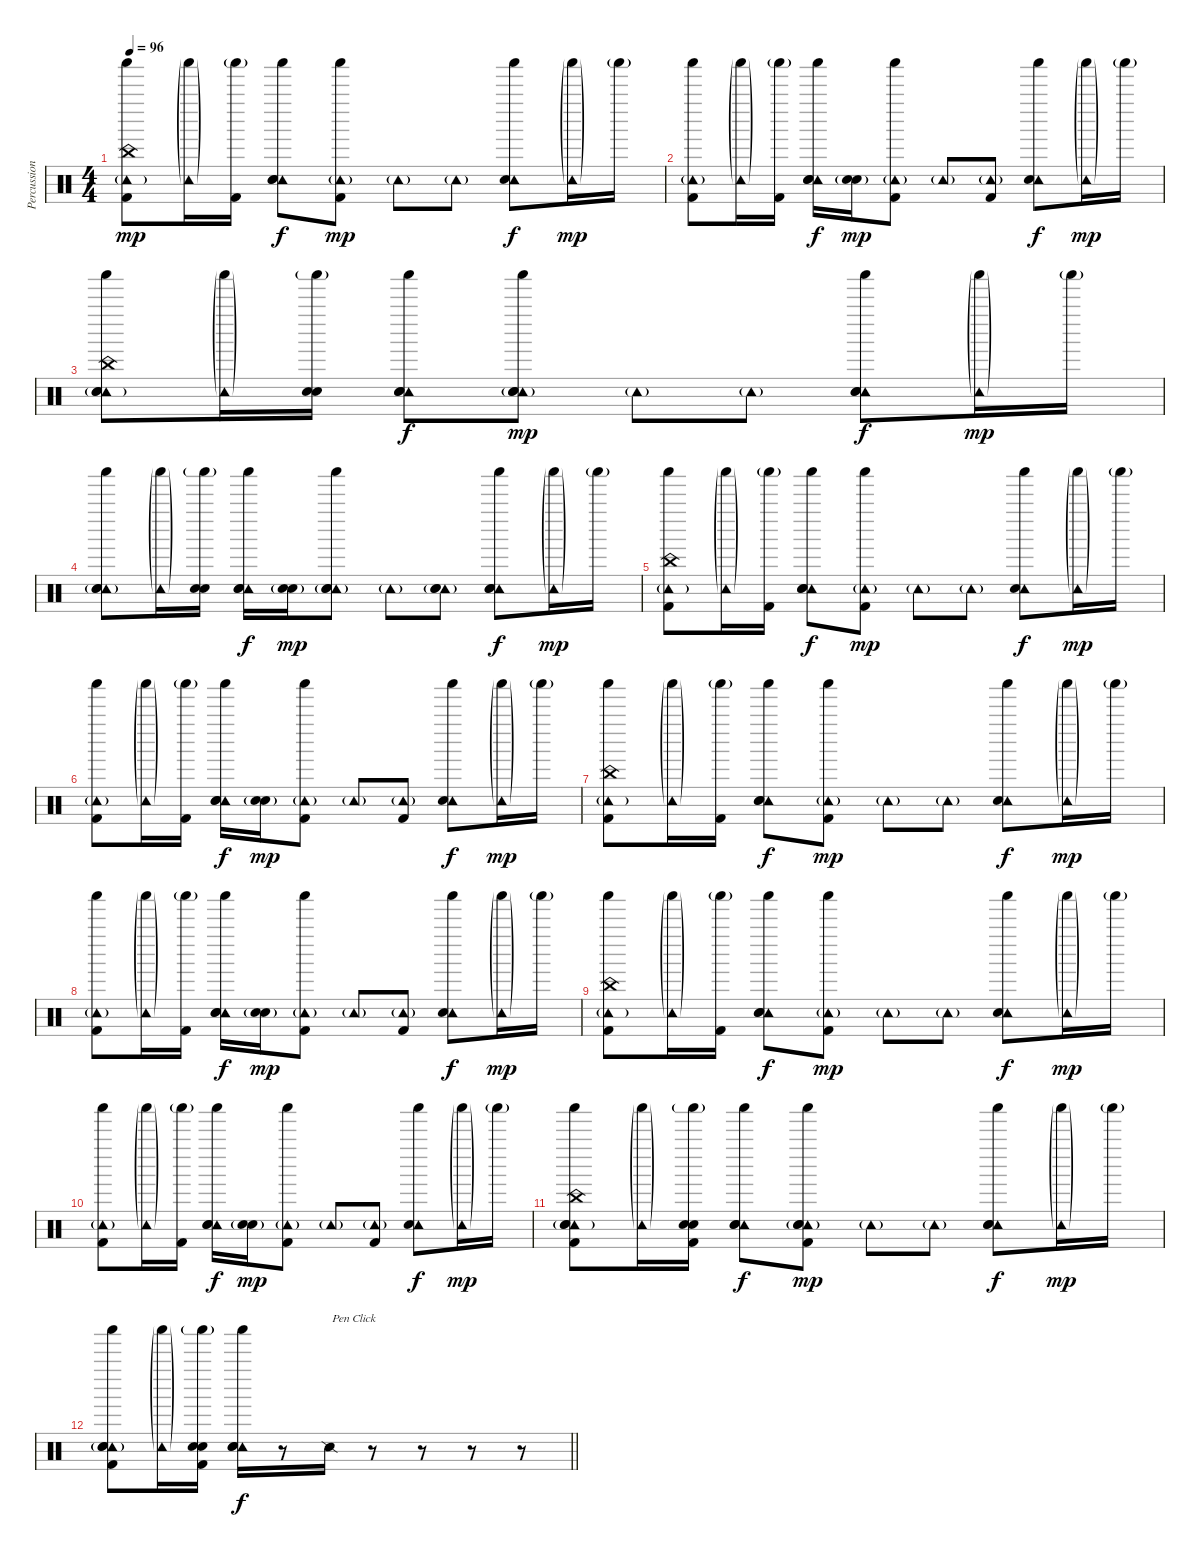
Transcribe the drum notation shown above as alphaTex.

\track ("Percussion" "Percussion") {instrument percussion}
\staff {score}
\articulation defaults
\ts (4 4)
\tempo 96
\clef neutral
\ks c
("China (hit)" "Shaker (hit)" "Tambourine (hit)"{g} "Kick (hit) 2").8{dy mp} ("Shaker (hit)"{g} "Tambourine (hit)"{g}).16 ("Shaker (hit)"{g} "Kick (hit) 2").16 ("Shaker (hit)" "Tambourine (hit)" "Hand Clap (hit)" "Electric Snare (hit)").8{dy f} ("Shaker (hit)" "Tambourine (hit)"{g} "Kick (hit) 2").8{dy mp} "Tambourine (hit)"{g}.8 "Tambourine (hit)"{g}.8 ("Shaker (hit)" "Tambourine (hit)" "Electric Snare (hit)").8{dy f} ("Shaker (hit)"{g} "Tambourine (hit)"{g}).16{dy mp} "Shaker (hit)"{g}.16 |
("Shaker (hit)" "Tambourine (hit)"{g} "Kick (hit) 2").8 ("Shaker (hit)"{g} "Tambourine (hit)"{g}).16 ("Shaker (hit)"{g} "Kick (hit) 2").16 ("Shaker (hit)" "Tambourine (hit)" "Hand Clap (hit)" "Electric Snare (hit)").16{dy f} ("Hand Clap (hit)"{g} "Electric Snare (hit)"{g}).16{dy mp} ("Shaker (hit)" "Tambourine (hit)"{g} "Kick (hit) 2").8 "Tambourine (hit)"{g}.8 ("Tambourine (hit)"{g} "Kick (hit) 2").8 ("Shaker (hit)" "Tambourine (hit)" "Electric Snare (hit)").8{dy f} ("Shaker (hit)"{g} "Tambourine (hit)"{g}).16{dy mp} "Shaker (hit)"{g}.16 |
("China (hit)" "Shaker (hit)" "Tambourine (hit)"{g} "Snare (hit) 2" "Electric Snare (hit)").8 ("Shaker (hit)"{g} "Tambourine (hit)"{g}).16 ("Shaker (hit)"{g} "Snare (hit) 2" "Electric Snare (hit)").16 ("Shaker (hit)" "Tambourine (hit)" "Hand Clap (hit)" "Electric Snare (hit)").8{dy f} ("Shaker (hit)" "Tambourine (hit)"{g} "Snare (hit) 2" "Electric Snare (hit)").8{dy mp} "Tambourine (hit)"{g}.8 "Tambourine (hit)"{g}.8 ("Shaker (hit)" "Tambourine (hit)" "Snare (hit) 2" "Electric Snare (hit)").8{dy f} ("Shaker (hit)"{g} "Tambourine (hit)"{g}).16{dy mp} "Shaker (hit)"{g}.16 |
("Shaker (hit)" "Tambourine (hit)"{g} "Snare (hit) 2" "Electric Snare (hit)").8 ("Shaker (hit)"{g} "Tambourine (hit)"{g}).16 ("Shaker (hit)"{g} "Snare (hit) 2" "Electric Snare (hit)").16 ("Shaker (hit)" "Tambourine (hit)" "Hand Clap (hit)" "Electric Snare (hit)").16{dy f} ("Hand Clap (hit)"{g} "Electric Snare (hit)"{g}).16{dy mp} ("Shaker (hit)" "Tambourine (hit)"{g} "Snare (hit) 2" "Electric Snare (hit)").8 "Tambourine (hit)"{g}.8 ("Tambourine (hit)"{g} "Snare (hit) 2" "Electric Snare (hit)").8 ("Shaker (hit)" "Tambourine (hit)" "Snare (hit) 2" "Electric Snare (hit)").8{dy f} ("Shaker (hit)"{g} "Tambourine (hit)"{g}).16{dy mp} "Shaker (hit)"{g}.16 |
("China (hit)" "Shaker (hit)" "Tambourine (hit)"{g} "Kick (hit) 2").8 ("Shaker (hit)"{g} "Tambourine (hit)"{g}).16 ("Shaker (hit)"{g} "Kick (hit) 2").16 ("Shaker (hit)" "Tambourine (hit)" "Hand Clap (hit)" "Electric Snare (hit)").8{dy f} ("Shaker (hit)" "Tambourine (hit)"{g} "Kick (hit) 2").8{dy mp} "Tambourine (hit)"{g}.8 "Tambourine (hit)"{g}.8 ("Shaker (hit)" "Tambourine (hit)" "Electric Snare (hit)").8{dy f} ("Shaker (hit)"{g} "Tambourine (hit)"{g}).16{dy mp} "Shaker (hit)"{g}.16 |
("Shaker (hit)" "Tambourine (hit)"{g} "Kick (hit) 2").8 ("Shaker (hit)"{g} "Tambourine (hit)"{g}).16 ("Shaker (hit)"{g} "Kick (hit) 2").16 ("Shaker (hit)" "Tambourine (hit)" "Hand Clap (hit)" "Electric Snare (hit)").16{dy f} ("Hand Clap (hit)"{g} "Electric Snare (hit)"{g}).16{dy mp} ("Shaker (hit)" "Tambourine (hit)"{g} "Kick (hit) 2").8 "Tambourine (hit)"{g}.8 ("Tambourine (hit)"{g} "Kick (hit) 2").8 ("Shaker (hit)" "Tambourine (hit)" "Electric Snare (hit)").8{dy f} ("Shaker (hit)"{g} "Tambourine (hit)"{g}).16{dy mp} "Shaker (hit)"{g}.16 |
("China (hit)" "Shaker (hit)" "Tambourine (hit)"{g} "Kick (hit) 2").8 ("Shaker (hit)"{g} "Tambourine (hit)"{g}).16 ("Shaker (hit)"{g} "Kick (hit) 2").16 ("Shaker (hit)" "Tambourine (hit)" "Hand Clap (hit)" "Electric Snare (hit)").8{dy f} ("Shaker (hit)" "Tambourine (hit)"{g} "Kick (hit) 2").8{dy mp} "Tambourine (hit)"{g}.8 "Tambourine (hit)"{g}.8 ("Shaker (hit)" "Tambourine (hit)" "Electric Snare (hit)").8{dy f} ("Shaker (hit)"{g} "Tambourine (hit)"{g}).16{dy mp} "Shaker (hit)"{g}.16 |
("Shaker (hit)" "Tambourine (hit)"{g} "Kick (hit) 2").8 ("Shaker (hit)"{g} "Tambourine (hit)"{g}).16 ("Shaker (hit)"{g} "Kick (hit) 2").16 ("Shaker (hit)" "Tambourine (hit)" "Hand Clap (hit)" "Electric Snare (hit)").16{dy f} ("Hand Clap (hit)"{g} "Electric Snare (hit)"{g}).16{dy mp} ("Shaker (hit)" "Tambourine (hit)"{g} "Kick (hit) 2").8 "Tambourine (hit)"{g}.8 ("Tambourine (hit)"{g} "Kick (hit) 2").8 ("Shaker (hit)" "Tambourine (hit)" "Electric Snare (hit)").8{dy f} ("Shaker (hit)"{g} "Tambourine (hit)"{g}).16{dy mp} "Shaker (hit)"{g}.16 |
("China (hit)" "Shaker (hit)" "Tambourine (hit)"{g} "Kick (hit) 2").8 ("Shaker (hit)"{g} "Tambourine (hit)"{g}).16 ("Shaker (hit)"{g} "Kick (hit) 2").16 ("Shaker (hit)" "Tambourine (hit)" "Hand Clap (hit)" "Electric Snare (hit)").8{dy f} ("Shaker (hit)" "Tambourine (hit)"{g} "Kick (hit) 2").8{dy mp} "Tambourine (hit)"{g}.8 "Tambourine (hit)"{g}.8 ("Shaker (hit)" "Tambourine (hit)" "Electric Snare (hit)").8{dy f} ("Shaker (hit)"{g} "Tambourine (hit)"{g}).16{dy mp} "Shaker (hit)"{g}.16 |
("Shaker (hit)" "Tambourine (hit)"{g} "Kick (hit) 2").8 ("Shaker (hit)"{g} "Tambourine (hit)"{g}).16 ("Shaker (hit)"{g} "Kick (hit) 2").16 ("Shaker (hit)" "Tambourine (hit)" "Hand Clap (hit)" "Electric Snare (hit)").16{dy f} ("Hand Clap (hit)"{g} "Electric Snare (hit)"{g}).16{dy mp} ("Shaker (hit)" "Tambourine (hit)"{g} "Kick (hit) 2").8 "Tambourine (hit)"{g}.8 ("Tambourine (hit)"{g} "Kick (hit) 2").8 ("Shaker (hit)" "Tambourine (hit)" "Electric Snare (hit)").8{dy f} ("Shaker (hit)"{g} "Tambourine (hit)"{g}).16{dy mp} "Shaker (hit)"{g}.16 |
("China (hit)" "Shaker (hit)" "Tambourine (hit)"{g} "Snare (hit) 2" "Electric Snare (hit)" "Kick (hit) 2").8 ("Shaker (hit)"{g} "Tambourine (hit)"{g}).16 ("Shaker (hit)"{g} "Snare (hit) 2" "Electric Snare (hit)" "Kick (hit) 2").16 ("Shaker (hit)" "Tambourine (hit)" "Hand Clap (hit)" "Electric Snare (hit)").8{dy f} ("Shaker (hit)" "Tambourine (hit)"{g} "Snare (hit) 2" "Electric Snare (hit)" "Kick (hit) 2").8{dy mp} "Tambourine (hit)"{g}.8 "Tambourine (hit)"{g}.8 ("Shaker (hit)" "Tambourine (hit)" "Snare (hit) 2" "Electric Snare (hit)").8{dy f} ("Shaker (hit)"{g} "Tambourine (hit)"{g}).16{dy mp} "Shaker (hit)"{g}.16 |
\barLineRight lightlight
("Shaker (hit)" "Tambourine (hit)"{g} "Snare (hit) 2" "Electric Snare (hit)" "Kick (hit) 2").8 ("Shaker (hit)"{g} "Tambourine (hit)"{g}).16 ("Shaker (hit)"{g} "Snare (hit) 2" "Electric Snare (hit)" "Kick (hit) 2").16 ("Shaker (hit)" "Tambourine (hit)" "Hand Clap (hit)" "Electric Snare (hit)").16{dy f} r.8 "Snare (side stick) 2".16{txt "Pen Click"} r.8 r.8 r.8 r.8
